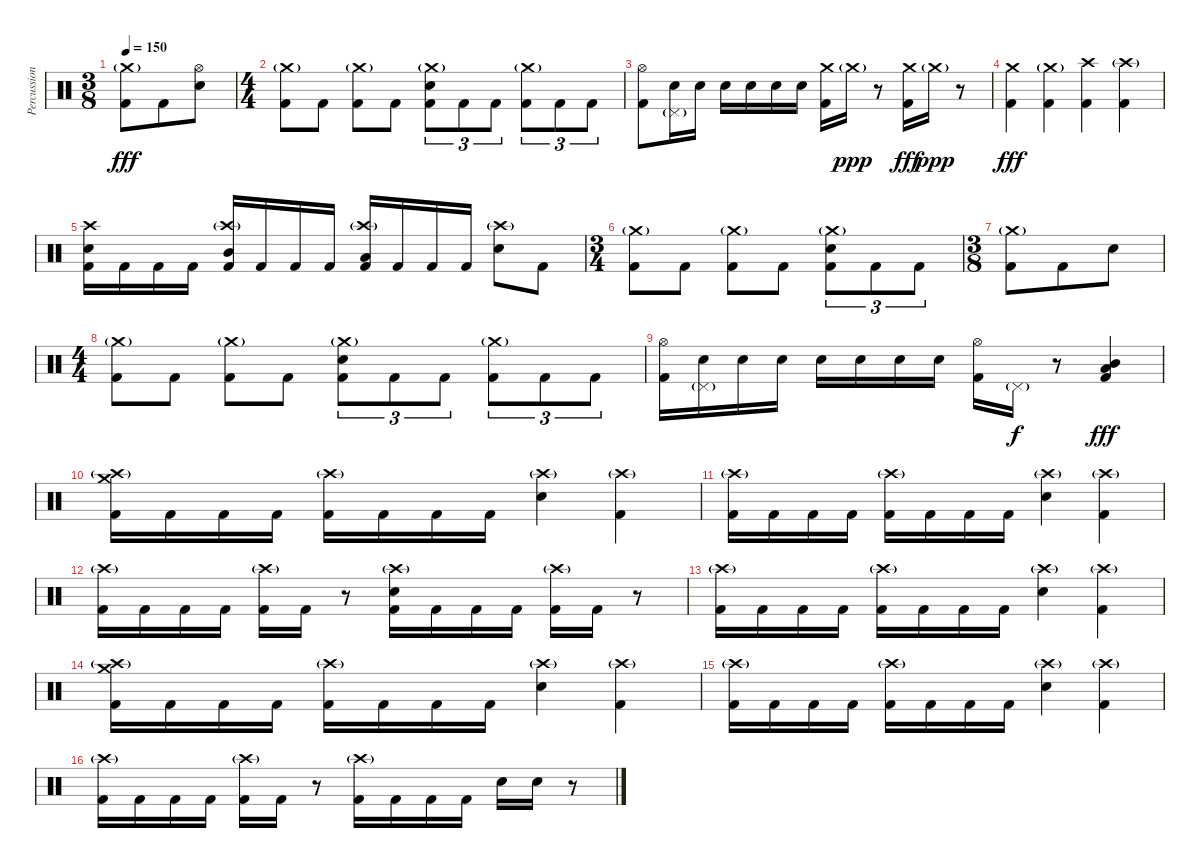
\track ("Percussion" "Percussion") {instrument percussion}
\staff {score}
\articulation defaults
\ts (3 8)
\tempo 150
\clef neutral
\ks c
("Crash medium (hit)"{g} "Kick (hit) 2").8{dy fff} "Kick (hit) 2".8 ("Hi-Hat (open)" "Electric Snare (hit)").8 |
\ts (4 4)
("Crash medium (hit)"{g} "Kick (hit) 2").8 "Kick (hit) 2".8 ("Crash medium (hit)"{g} "Kick (hit) 2").8 "Kick (hit) 2".8 ("Crash medium (hit)"{g} "Electric Snare (hit)" "Kick (hit) 2").8{tu (3 2)} "Kick (hit) 2".8{tu (3 2)} "Kick (hit) 2".8{tu (3 2)} ("Crash medium (hit)"{g} "Kick (hit) 2").8{tu (3 2)} "Kick (hit) 2".8{tu (3 2)} "Kick (hit) 2".8{tu (3 2)} |
("Hi-Hat (open)" "Kick (hit) 2").8 ("Electric Snare (hit)" "Pedal Hi-Hat (hit)"{g}).16 "Electric Snare (hit)".16 "Electric Snare (hit)".16 "Electric Snare (hit)".16 "Electric Snare (hit)".16 "Electric Snare (hit)".16 ("Crash medium (hit)" "Kick (hit) 2").16 "Crash medium (hit)"{g}.16{dy ppp} r.8 ("Crash medium (hit)" "Kick (hit) 2").16{dy fff} "Crash medium (hit)"{g}.16{dy ppp} r.8 |
("Crash medium (hit)" "Kick (hit) 2").4{dy fff} ("Crash medium (hit)"{g} "Kick (hit) 2").4 ("Crash high (hit)" "Kick (hit) 2").4 ("Crash high (hit)"{g} "Kick (hit) 2").4 |
("Crash high (hit)" "Electric Snare (hit)" "Kick (hit) 2").16 "Kick (hit) 2".16 "Kick (hit) 2".16 "Kick (hit) 2".16 ("Crash high (hit)"{g} "Mid Tom (hit)" "Kick (hit) 2").16 "Kick (hit) 2".16 "Kick (hit) 2".16 "Kick (hit) 2".16 ("Crash high (hit)"{g} "Low Tom (hit)" "Kick (hit) 2").16 "Kick (hit) 2".16 "Kick (hit) 2".16 "Kick (hit) 2".16 ("Crash high (hit)"{g} "Electric Snare (hit)").8 "Kick (hit) 2".8 |
\ts (3 4)
("Crash medium (hit)"{g} "Kick (hit) 2").8 "Kick (hit) 2".8 ("Crash medium (hit)"{g} "Kick (hit) 2").8 "Kick (hit) 2".8 ("Crash medium (hit)"{g} "Electric Snare (hit)" "Kick (hit) 2").8{tu (3 2)} "Kick (hit) 2".8{tu (3 2)} "Kick (hit) 2".8{tu (3 2)} |
\ts (3 8)
("Crash medium (hit)"{g} "Kick (hit) 2").8 "Kick (hit) 2".8 "Electric Snare (hit)".8 |
\ts (4 4)
("Crash medium (hit)"{g} "Kick (hit) 2").8 "Kick (hit) 2".8 ("Crash medium (hit)"{g} "Kick (hit) 2").8 "Kick (hit) 2".8 ("Crash medium (hit)"{g} "Electric Snare (hit)" "Kick (hit) 2").8{tu (3 2)} "Kick (hit) 2".8{tu (3 2)} "Kick (hit) 2".8{tu (3 2)} ("Crash medium (hit)"{g} "Kick (hit) 2").8{tu (3 2)} "Kick (hit) 2".8{tu (3 2)} "Kick (hit) 2".8{tu (3 2)} |
("Hi-Hat (open)" "Kick (hit) 2").16 ("Electric Snare (hit)" "Pedal Hi-Hat (hit)"{g}).16 "Electric Snare (hit)".16 "Electric Snare (hit)".16 "Electric Snare (hit)".16 "Electric Snare (hit)".16 "Electric Snare (hit)".16 "Electric Snare (hit)".16 ("Hi-Hat (open)" "Kick (hit) 2").16 "Pedal Hi-Hat (hit)"{g}.16{dy f} r.8 ("Mid Tom (hit)" "Low Tom (hit)" "Kick (hit) 2").4{dy fff} |
("Crash high (hit)"{g} "Crash medium (hit)" "Kick (hit) 2").16 "Kick (hit) 2".16 "Kick (hit) 2".16 "Kick (hit) 2".16 ("Crash high (hit)"{g} "Kick (hit) 2").16 "Kick (hit) 2".16 "Kick (hit) 2".16 "Kick (hit) 2".16 ("Crash high (hit)"{g} "Electric Snare (hit)").4 ("Crash high (hit)"{g} "Kick (hit) 2").4 |
("Crash high (hit)"{g} "Kick (hit) 2").16 "Kick (hit) 2".16 "Kick (hit) 2".16 "Kick (hit) 2".16 ("Crash high (hit)"{g} "Kick (hit) 2").16 "Kick (hit) 2".16 "Kick (hit) 2".16 "Kick (hit) 2".16 ("Crash high (hit)"{g} "Electric Snare (hit)").4 ("Crash high (hit)"{g} "Kick (hit) 2").4 |
("Crash high (hit)"{g} "Kick (hit) 2").16 "Kick (hit) 2".16 "Kick (hit) 2".16 "Kick (hit) 2".16 ("Crash high (hit)"{g} "Kick (hit) 2").16 "Kick (hit) 2".16 r.8 ("Crash high (hit)"{g} "Electric Snare (hit)" "Kick (hit) 2").16 "Kick (hit) 2".16 "Kick (hit) 2".16 "Kick (hit) 2".16 ("Crash high (hit)"{g} "Kick (hit) 2").16 "Kick (hit) 2".16 r.8 |
("Crash high (hit)"{g} "Kick (hit) 2").16 "Kick (hit) 2".16 "Kick (hit) 2".16 "Kick (hit) 2".16 ("Crash high (hit)"{g} "Kick (hit) 2").16 "Kick (hit) 2".16 "Kick (hit) 2".16 "Kick (hit) 2".16 ("Crash high (hit)"{g} "Electric Snare (hit)").4 ("Crash high (hit)"{g} "Kick (hit) 2").4 |
("Crash high (hit)"{g} "Crash medium (hit)" "Kick (hit) 2").16 "Kick (hit) 2".16 "Kick (hit) 2".16 "Kick (hit) 2".16 ("Crash high (hit)"{g} "Kick (hit) 2").16 "Kick (hit) 2".16 "Kick (hit) 2".16 "Kick (hit) 2".16 ("Crash high (hit)"{g} "Electric Snare (hit)").4 ("Crash high (hit)"{g} "Kick (hit) 2").4 |
("Crash high (hit)"{g} "Kick (hit) 2").16 "Kick (hit) 2".16 "Kick (hit) 2".16 "Kick (hit) 2".16 ("Crash high (hit)"{g} "Kick (hit) 2").16 "Kick (hit) 2".16 "Kick (hit) 2".16 "Kick (hit) 2".16 ("Crash high (hit)"{g} "Electric Snare (hit)").4 ("Crash high (hit)"{g} "Kick (hit) 2").4 |
("Crash high (hit)"{g} "Kick (hit) 2").16 "Kick (hit) 2".16 "Kick (hit) 2".16 "Kick (hit) 2".16 ("Crash high (hit)"{g} "Kick (hit) 2").16 "Kick (hit) 2".16 r.8 ("Crash high (hit)"{g} "Kick (hit) 2").16 "Kick (hit) 2".16 "Kick (hit) 2".16 "Kick (hit) 2".16 "Electric Snare (hit)".16 "Electric Snare (hit)".16 r.8
